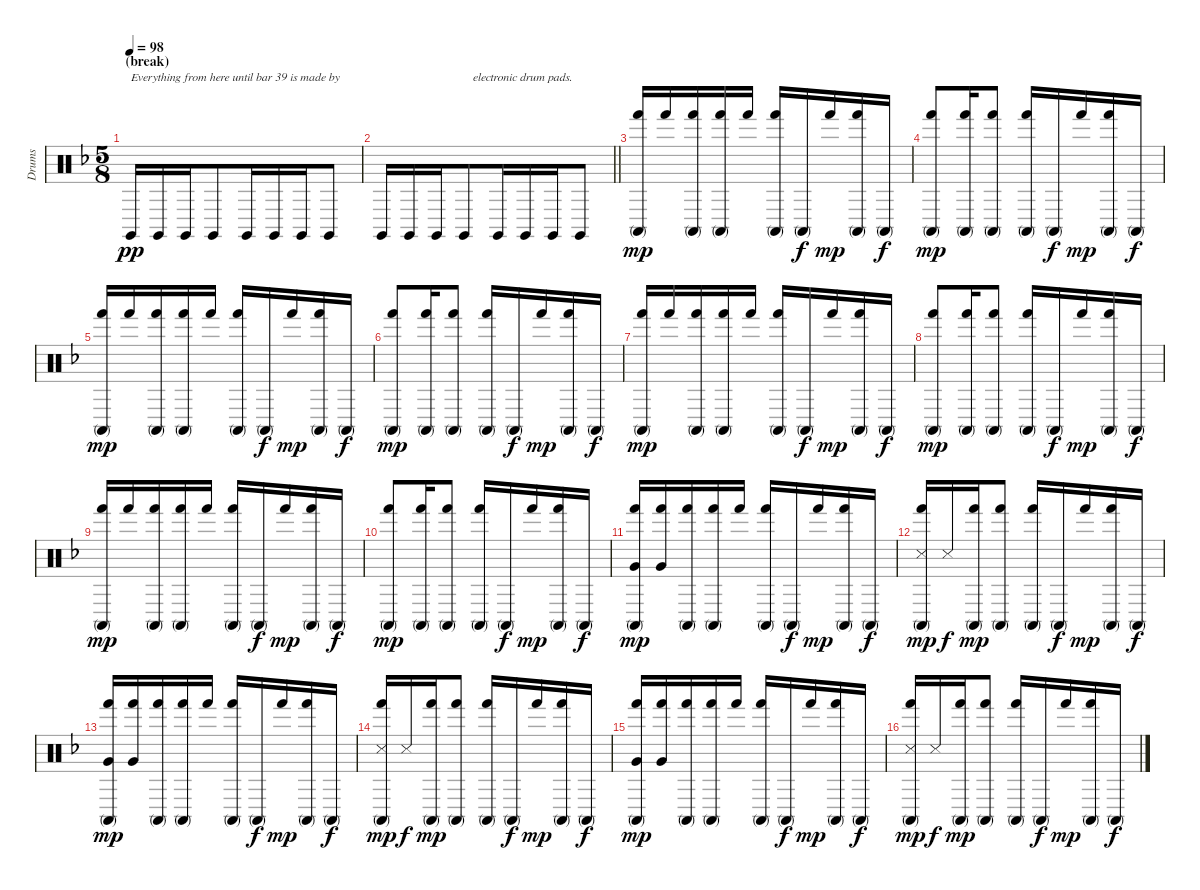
\track ("Drums" "Drums") {instrument percussion}
\staff {score}
\articulation defaults
\ts (5 8)
\section ("" "(break)")
\tempo 98
\clef neutral
\ks dminor "Claves (hit)".16{txt "Everything from here until bar 39 is made by" dy pp} "Claves (hit)".16{beam merge} "Claves (hit)".16 "Claves (hit)".8 "Claves (hit)".16{beam merge} "Claves (hit)".16 "Claves (hit)".16{beam merge} "Claves (hit)".8
|
\barLineRight lightlight "Claves (hit)".16 "Claves (hit)".16{beam merge} "Claves (hit)".16 "Claves (hit)".8{txt "   electronic drum pads."} "Claves (hit)".16{beam merge} "Claves (hit)".16 "Claves (hit)".16{beam merge} "Claves (hit)".8
|
("Hand (hit)" "Conga high (mute)").16{dy mp beam Up} "Hand (hit)".16{beam merge} ("Hand (hit)" "Conga high (mute)").16 ("Hand (hit)" "Conga high (mute)").16{beam merge} "Hand (hit)".16{beam split} ("Hand (hit)" "Conga high (mute)").16{beam Up beam merge} "Conga high (mute)".16{dy f beam Up} "Hand (hit)".16{dy mp beam merge} ("Hand (hit)" "Conga high (mute)").16{beam Up} "Conga high (mute)".16{dy f beam Up} |
("Hand (hit)" "Conga high (mute)").8{dy mp beam Up beam merge} ("Hand (hit)" "Conga high (mute)").16 ("Hand (hit)" "Conga high (mute)").8{beam split} ("Hand (hit)" "Conga high (mute)").16{beam Up beam merge} "Conga high (mute)".16{dy f beam Up} "Hand (hit)".16{dy mp beam merge} ("Hand (hit)" "Conga high (mute)").16{beam Up} "Conga high (mute)".16{dy f beam Up} |
("Hand (hit)" "Conga high (mute)").16{dy mp beam Up} "Hand (hit)".16{beam merge} ("Hand (hit)" "Conga high (mute)").16 ("Hand (hit)" "Conga high (mute)").16{beam merge} "Hand (hit)".16{beam split} ("Hand (hit)" "Conga high (mute)").16{beam Up beam merge} "Conga high (mute)".16{dy f beam Up} "Hand (hit)".16{dy mp beam merge} ("Hand (hit)" "Conga high (mute)").16{beam Up} "Conga high (mute)".16{dy f beam Up} |
("Hand (hit)" "Conga high (mute)").8{dy mp beam Up beam merge} ("Hand (hit)" "Conga high (mute)").16 ("Hand (hit)" "Conga high (mute)").8{beam split} ("Hand (hit)" "Conga high (mute)").16{beam Up beam merge} "Conga high (mute)".16{dy f beam Up} "Hand (hit)".16{dy mp beam merge} ("Hand (hit)" "Conga high (mute)").16{beam Up} "Conga high (mute)".16{dy f beam Up} |
("Hand (hit)" "Conga high (mute)").16{dy mp beam Up} "Hand (hit)".16{beam merge} ("Hand (hit)" "Conga high (mute)").16 ("Hand (hit)" "Conga high (mute)").16{beam merge} "Hand (hit)".16{beam split} ("Hand (hit)" "Conga high (mute)").16{beam Up beam merge} "Conga high (mute)".16{dy f beam Up} "Hand (hit)".16{dy mp beam merge} ("Hand (hit)" "Conga high (mute)").16{beam Up} "Conga high (mute)".16{dy f beam Up} |
("Hand (hit)" "Conga high (mute)").8{dy mp beam Up beam merge} ("Hand (hit)" "Conga high (mute)").16 ("Hand (hit)" "Conga high (mute)").8{beam split} ("Hand (hit)" "Conga high (mute)").16{beam Up beam merge} "Conga high (mute)".16{dy f beam Up} "Hand (hit)".16{dy mp beam merge} ("Hand (hit)" "Conga high (mute)").16{beam Up} "Conga high (mute)".16{dy f beam Up} |
("Hand (hit)" "Conga high (mute)").16{dy mp beam Up} "Hand (hit)".16{beam merge} ("Hand (hit)" "Conga high (mute)").16 ("Hand (hit)" "Conga high (mute)").16{beam merge} "Hand (hit)".16{beam split} ("Hand (hit)" "Conga high (mute)").16{beam Up beam merge} "Conga high (mute)".16{dy f beam Up} "Hand (hit)".16{dy mp beam merge} ("Hand (hit)" "Conga high (mute)").16{beam Up} "Conga high (mute)".16{dy f beam Up} |
("Hand (hit)" "Conga high (mute)").8{dy mp beam Up beam merge} ("Hand (hit)" "Conga high (mute)").16 ("Hand (hit)" "Conga high (mute)").8{beam split} ("Hand (hit)" "Conga high (mute)").16{beam Up beam merge} "Conga high (mute)".16{dy f beam Up} "Hand (hit)".16{dy mp beam merge} ("Hand (hit)" "Conga high (mute)").16{beam Up} "Conga high (mute)".16{dy f beam Up} |
("Hand (hit)" "Conga high (mute)" "Very Low Tom (hit)").16{dy mp beam Up} ("Hand (hit)" "Very Low Tom (hit)").16{beam merge} ("Hand (hit)" "Conga high (mute)").16 ("Hand (hit)" "Conga high (mute)").16{beam merge} "Hand (hit)".16{beam split} ("Hand (hit)" "Conga high (mute)").16{beam Up beam merge} "Conga high (mute)".16{dy f beam Up} "Hand (hit)".16{dy mp beam merge} ("Hand (hit)" "Conga high (mute)").16{beam Up} "Conga high (mute)".16{dy f beam Up} |
("Hand (hit)" "Conga high (mute)" "Snare (side stick) 3").16{dy mp beam Up} "Snare (side stick) 3".16{dy f beam merge} ("Hand (hit)" "Conga high (mute)").16{dy mp} ("Hand (hit)" "Conga high (mute)").8{beam split} ("Hand (hit)" "Conga high (mute)").16{beam Up beam merge} "Conga high (mute)".16{dy f beam Up} "Hand (hit)".16{dy mp beam merge} ("Hand (hit)" "Conga high (mute)").16{beam Up} "Conga high (mute)".16{dy f beam Up} |
("Hand (hit)" "Conga high (mute)" "Very Low Tom (hit)").16{dy mp beam Up} ("Hand (hit)" "Very Low Tom (hit)").16{beam merge} ("Hand (hit)" "Conga high (mute)").16 ("Hand (hit)" "Conga high (mute)").16{beam merge} "Hand (hit)".16{beam split} ("Hand (hit)" "Conga high (mute)").16{beam Up beam merge} "Conga high (mute)".16{dy f beam Up} "Hand (hit)".16{dy mp beam merge} ("Hand (hit)" "Conga high (mute)").16{beam Up} "Conga high (mute)".16{dy f beam Up} |
("Hand (hit)" "Conga high (mute)" "Snare (side stick) 3").16{dy mp beam Up} "Snare (side stick) 3".16{dy f beam merge} ("Hand (hit)" "Conga high (mute)").16{dy mp} ("Hand (hit)" "Conga high (mute)").8{beam split} ("Hand (hit)" "Conga high (mute)").16{beam Up beam merge} "Conga high (mute)".16{dy f beam Up} "Hand (hit)".16{dy mp beam merge} ("Hand (hit)" "Conga high (mute)").16{beam Up} "Conga high (mute)".16{dy f beam Up} |
("Hand (hit)" "Conga high (mute)" "Very Low Tom (hit)").16{dy mp beam Up} ("Hand (hit)" "Very Low Tom (hit)").16{beam merge} ("Hand (hit)" "Conga high (mute)").16 ("Hand (hit)" "Conga high (mute)").16{beam merge} "Hand (hit)".16{beam split} ("Hand (hit)" "Conga high (mute)").16{beam Up beam merge} "Conga high (mute)".16{dy f beam Up} "Hand (hit)".16{dy mp beam merge} ("Hand (hit)" "Conga high (mute)").16{beam Up} "Conga high (mute)".16{dy f beam Up} |
("Hand (hit)" "Conga high (mute)" "Snare (side stick) 3").16{dy mp beam Up} "Snare (side stick) 3".16{dy f beam merge} ("Hand (hit)" "Conga high (mute)").16{dy mp} ("Hand (hit)" "Conga high (mute)").8{beam split} ("Hand (hit)" "Conga high (mute)").16{beam Up beam merge} "Conga high (mute)".16{dy f beam Up} "Hand (hit)".16{dy mp beam merge} ("Hand (hit)" "Conga high (mute)").16{beam Up} "Conga high (mute)".16{dy f beam Up}
